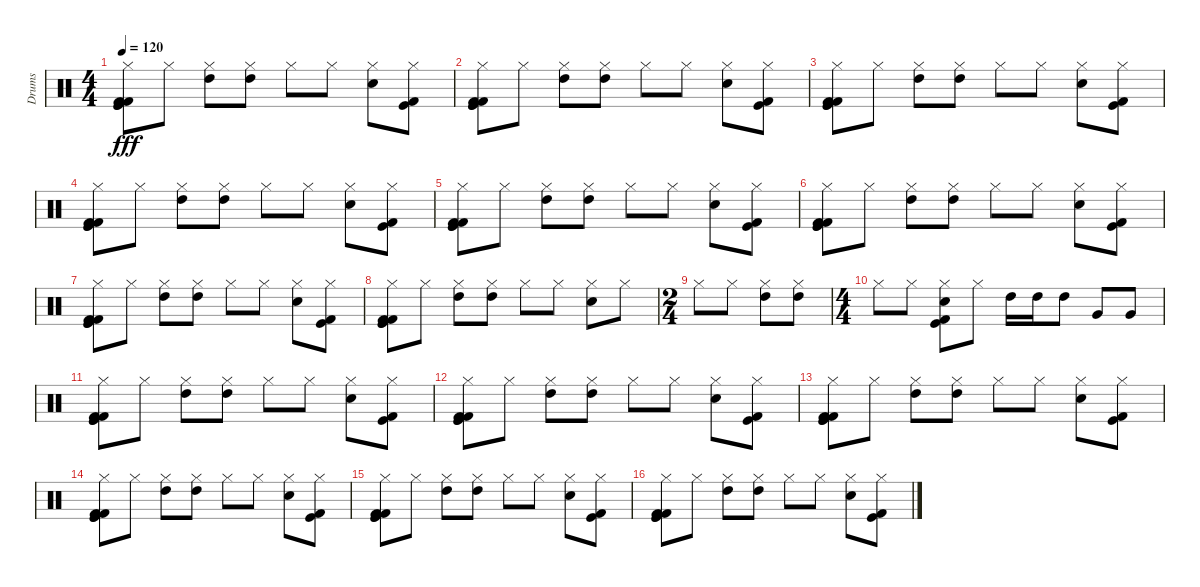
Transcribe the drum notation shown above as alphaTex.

\track ("Drums" "Drums") {instrument percussion}
\staff {score}
\articulation defaults
\ts (4 4)
\tempo 120
\clef neutral
\ks c
("Hi-Hat (closed)" "Kick (hit) 2" "Kick (hit) 2" "Kick (hit)" "Kick (hit)").8{dy fff} "Hi-Hat (closed)".8 ("Hi-Hat (closed)" "High Tom (hit)").8 ("Hi-Hat (closed)" "High Tom (hit)").8 "Hi-Hat (closed)".8 "Hi-Hat (closed)".8 ("Hi-Hat (closed)" "Snare (hit) 2").8 ("Hi-Hat (closed)" "Kick (hit) 2" "Kick (hit)").8 |
("Hi-Hat (closed)" "Kick (hit) 2" "Kick (hit) 2" "Kick (hit)" "Kick (hit)").8 "Hi-Hat (closed)".8 ("Hi-Hat (closed)" "High Tom (hit)").8 ("Hi-Hat (closed)" "High Tom (hit)").8 "Hi-Hat (closed)".8 "Hi-Hat (closed)".8 ("Hi-Hat (closed)" "Snare (hit) 2").8 ("Hi-Hat (closed)" "Kick (hit) 2" "Kick (hit)").8 |
("Hi-Hat (closed)" "Kick (hit) 2" "Kick (hit) 2" "Kick (hit)" "Kick (hit)").8 "Hi-Hat (closed)".8 ("Hi-Hat (closed)" "High Tom (hit)").8 ("Hi-Hat (closed)" "High Tom (hit)").8 "Hi-Hat (closed)".8 "Hi-Hat (closed)".8 ("Hi-Hat (closed)" "Snare (hit) 2").8 ("Hi-Hat (closed)" "Kick (hit) 2" "Kick (hit)").8 |
("Hi-Hat (closed)" "Kick (hit) 2" "Kick (hit) 2" "Kick (hit)" "Kick (hit)").8 "Hi-Hat (closed)".8 ("Hi-Hat (closed)" "High Tom (hit)").8 ("Hi-Hat (closed)" "High Tom (hit)").8 "Hi-Hat (closed)".8 "Hi-Hat (closed)".8 ("Hi-Hat (closed)" "Snare (hit) 2").8 ("Hi-Hat (closed)" "Kick (hit) 2" "Kick (hit)").8 |
("Hi-Hat (closed)" "Kick (hit) 2" "Kick (hit) 2" "Kick (hit)" "Kick (hit)").8 "Hi-Hat (closed)".8 ("Hi-Hat (closed)" "High Tom (hit)").8 ("Hi-Hat (closed)" "High Tom (hit)").8 "Hi-Hat (closed)".8 "Hi-Hat (closed)".8 ("Hi-Hat (closed)" "Snare (hit) 2").8 ("Hi-Hat (closed)" "Kick (hit) 2" "Kick (hit)").8 |
("Hi-Hat (closed)" "Kick (hit) 2" "Kick (hit) 2" "Kick (hit)" "Kick (hit)").8 "Hi-Hat (closed)".8 ("Hi-Hat (closed)" "High Tom (hit)").8 ("Hi-Hat (closed)" "High Tom (hit)").8 "Hi-Hat (closed)".8 "Hi-Hat (closed)".8 ("Hi-Hat (closed)" "Snare (hit) 2").8 ("Hi-Hat (closed)" "Kick (hit) 2" "Kick (hit)").8 |
("Hi-Hat (closed)" "Kick (hit) 2" "Kick (hit) 2" "Kick (hit)" "Kick (hit)").8 "Hi-Hat (closed)".8 ("Hi-Hat (closed)" "High Tom (hit)").8 ("Hi-Hat (closed)" "High Tom (hit)").8 "Hi-Hat (closed)".8 "Hi-Hat (closed)".8 ("Hi-Hat (closed)" "Snare (hit) 2").8 ("Hi-Hat (closed)" "Kick (hit) 2" "Kick (hit)").8 |
("Hi-Hat (closed)" "Kick (hit) 2" "Kick (hit) 2" "Kick (hit)" "Kick (hit)").8 "Hi-Hat (closed)".8 ("Hi-Hat (closed)" "High Tom (hit)").8 ("Hi-Hat (closed)" "High Tom (hit)").8 "Hi-Hat (closed)".8 "Hi-Hat (closed)".8 ("Hi-Hat (closed)" "Snare (hit) 2").8 "Hi-Hat (closed)".8 |
\ts (2 4)
"Hi-Hat (closed)".8 "Hi-Hat (closed)".8 ("Hi-Hat (closed)" "High Tom (hit)").8 ("Hi-Hat (closed)" "High Tom (hit)").8 |
\ts (4 4)
"Hi-Hat (closed)".8 "Hi-Hat (closed)".8 ("Hi-Hat (closed)" "Snare (hit) 2" "Kick (hit) 2" "Kick (hit)").8 "Hi-Hat (closed)".8 "High Tom (hit)".16 "High Tom (hit)".16 "High Tom (hit)".8 "Very Low Tom (hit)".8 "Very Low Tom (hit)".8 |
("Hi-Hat (closed)" "Kick (hit) 2" "Kick (hit) 2" "Kick (hit)" "Kick (hit)").8 "Hi-Hat (closed)".8 ("Hi-Hat (closed)" "High Tom (hit)").8 ("Hi-Hat (closed)" "High Tom (hit)").8 "Hi-Hat (closed)".8 "Hi-Hat (closed)".8 ("Hi-Hat (closed)" "Snare (hit) 2").8 ("Hi-Hat (closed)" "Kick (hit) 2" "Kick (hit)").8 |
("Hi-Hat (closed)" "Kick (hit) 2" "Kick (hit) 2" "Kick (hit)" "Kick (hit)").8 "Hi-Hat (closed)".8 ("Hi-Hat (closed)" "High Tom (hit)").8 ("Hi-Hat (closed)" "High Tom (hit)").8 "Hi-Hat (closed)".8 "Hi-Hat (closed)".8 ("Hi-Hat (closed)" "Snare (hit) 2").8 ("Hi-Hat (closed)" "Kick (hit) 2" "Kick (hit)").8 |
("Hi-Hat (closed)" "Kick (hit) 2" "Kick (hit) 2" "Kick (hit)" "Kick (hit)").8 "Hi-Hat (closed)".8 ("Hi-Hat (closed)" "High Tom (hit)").8 ("Hi-Hat (closed)" "High Tom (hit)").8 "Hi-Hat (closed)".8 "Hi-Hat (closed)".8 ("Hi-Hat (closed)" "Snare (hit) 2").8 ("Hi-Hat (closed)" "Kick (hit) 2" "Kick (hit)").8 |
("Hi-Hat (closed)" "Kick (hit) 2" "Kick (hit) 2" "Kick (hit)" "Kick (hit)").8 "Hi-Hat (closed)".8 ("Hi-Hat (closed)" "High Tom (hit)").8 ("Hi-Hat (closed)" "High Tom (hit)").8 "Hi-Hat (closed)".8 "Hi-Hat (closed)".8 ("Hi-Hat (closed)" "Snare (hit) 2").8 ("Hi-Hat (closed)" "Kick (hit) 2" "Kick (hit)").8 |
("Hi-Hat (closed)" "Kick (hit) 2" "Kick (hit) 2" "Kick (hit)" "Kick (hit)").8 "Hi-Hat (closed)".8 ("Hi-Hat (closed)" "High Tom (hit)").8 ("Hi-Hat (closed)" "High Tom (hit)").8 "Hi-Hat (closed)".8 "Hi-Hat (closed)".8 ("Hi-Hat (closed)" "Snare (hit) 2").8 ("Hi-Hat (closed)" "Kick (hit) 2" "Kick (hit)").8 |
("Hi-Hat (closed)" "Kick (hit) 2" "Kick (hit) 2" "Kick (hit)" "Kick (hit)").8 "Hi-Hat (closed)".8 ("Hi-Hat (closed)" "High Tom (hit)").8 ("Hi-Hat (closed)" "High Tom (hit)").8 "Hi-Hat (closed)".8 "Hi-Hat (closed)".8 ("Hi-Hat (closed)" "Snare (hit) 2").8 ("Hi-Hat (closed)" "Kick (hit) 2" "Kick (hit)").8
